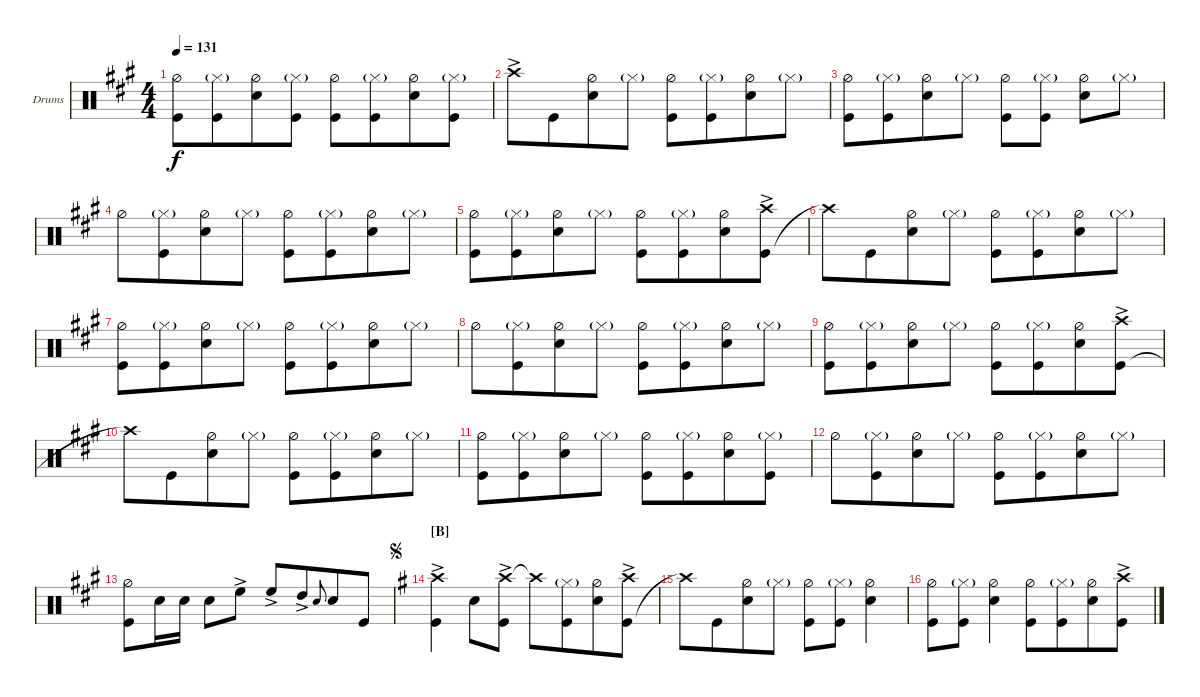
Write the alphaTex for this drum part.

\defaultSystemsLayout 4
\bracketExtendMode groupsimilarinstruments
\firstSystemTrackNameOrientation horizontal
\otherSystemsTrackNameOrientation horizontal
\track ("Drumkit" "Drums") {instrument percussion}
\staff {score}
\articulation defaults
\ts (4 4)
\tempo 131
\clef neutral
\ks a
("Kick (hit)" "Hi-Hat (half)").8{dy f} ("Kick (hit)" "Hi-Hat (closed)"{g}).8{beam merge} ("Snare (hit) 2" "Hi-Hat (half)").8 ("Kick (hit)" "Hi-Hat (closed)"{g}).8 ("Kick (hit)" "Hi-Hat (half)").8 ("Kick (hit)" "Hi-Hat (closed)"{g}).8{beam merge} ("Snare (hit) 2" "Hi-Hat (half)").8 ("Kick (hit)" "Hi-Hat (closed)"{g}).8 |
"Crash high (hit)"{ac}.8 "Kick (hit)".8{beam merge} ("Snare (hit) 2" "Hi-Hat (half)").8 "Hi-Hat (closed)"{g}.8 ("Kick (hit)" "Hi-Hat (half)").8 ("Kick (hit)" "Hi-Hat (closed)"{g}).8{beam merge} ("Snare (hit) 2" "Hi-Hat (half)").8 "Hi-Hat (closed)"{g}.8 |
("Kick (hit)" "Hi-Hat (half)").8 ("Kick (hit)" "Hi-Hat (closed)"{g}).8{beam merge} ("Snare (hit) 2" "Hi-Hat (half)").8 "Hi-Hat (closed)"{g}.8 ("Kick (hit)" "Hi-Hat (half)").8 ("Kick (hit)" "Hi-Hat (closed)"{g}).8 ("Snare (hit) 2" "Hi-Hat (half)").8 "Hi-Hat (closed)"{g}.8 |
"Hi-Hat (half)".8 ("Kick (hit)" "Hi-Hat (closed)"{g}).8{beam merge} ("Snare (hit) 2" "Hi-Hat (half)").8 "Hi-Hat (closed)"{g}.8 ("Kick (hit)" "Hi-Hat (half)").8 ("Kick (hit)" "Hi-Hat (closed)"{g}).8{beam merge} ("Snare (hit) 2" "Hi-Hat (half)").8 "Hi-Hat (closed)"{g}.8 |
("Kick (hit)" "Hi-Hat (half)").8 ("Kick (hit)" "Hi-Hat (closed)"{g}).8{beam merge} ("Snare (hit) 2" "Hi-Hat (half)").8 "Hi-Hat (closed)"{g}.8 ("Kick (hit)" "Hi-Hat (half)").8 ("Kick (hit)" "Hi-Hat (closed)"{g}).8{beam merge} ("Snare (hit) 2" "Hi-Hat (half)").8 ("Kick (hit)" "Crash high (hit)"{ac}).8 |
"Crash high (hit)"{t}.8 "Kick (hit)".8{beam merge} ("Snare (hit) 2" "Hi-Hat (half)").8 "Hi-Hat (closed)"{g}.8 ("Kick (hit)" "Hi-Hat (half)").8 ("Kick (hit)" "Hi-Hat (closed)"{g}).8{beam merge} ("Snare (hit) 2" "Hi-Hat (half)").8 "Hi-Hat (closed)"{g}.8 |
("Kick (hit)" "Hi-Hat (half)").8 ("Kick (hit)" "Hi-Hat (closed)"{g}).8{beam merge} ("Snare (hit) 2" "Hi-Hat (half)").8 "Hi-Hat (closed)"{g}.8 ("Kick (hit)" "Hi-Hat (half)").8 ("Kick (hit)" "Hi-Hat (closed)"{g}).8{beam merge} ("Snare (hit) 2" "Hi-Hat (half)").8 "Hi-Hat (closed)"{g}.8 |
"Hi-Hat (half)".8 ("Kick (hit)" "Hi-Hat (closed)"{g}).8{beam merge} ("Snare (hit) 2" "Hi-Hat (half)").8 "Hi-Hat (closed)"{g}.8 ("Kick (hit)" "Hi-Hat (half)").8 ("Kick (hit)" "Hi-Hat (closed)"{g}).8{beam merge} ("Snare (hit) 2" "Hi-Hat (half)").8 "Hi-Hat (closed)"{g}.8 |
("Kick (hit)" "Hi-Hat (half)").8 ("Kick (hit)" "Hi-Hat (closed)"{g}).8{beam merge} ("Snare (hit) 2" "Hi-Hat (half)").8 "Hi-Hat (closed)"{g}.8 ("Kick (hit)" "Hi-Hat (half)").8 ("Kick (hit)" "Hi-Hat (closed)"{g}).8{beam merge} ("Snare (hit) 2" "Hi-Hat (half)").8 ("Kick (hit)" "Crash high (hit)"{ac}).8 |
"Crash high (hit)"{t}.8 "Kick (hit)".8{beam merge} ("Snare (hit) 2" "Hi-Hat (half)").8 "Hi-Hat (closed)"{g}.8 ("Kick (hit)" "Hi-Hat (half)").8 ("Kick (hit)" "Hi-Hat (closed)"{g}).8{beam merge} ("Snare (hit) 2" "Hi-Hat (half)").8 "Hi-Hat (closed)"{g}.8 |
("Kick (hit)" "Hi-Hat (half)").8 ("Kick (hit)" "Hi-Hat (closed)"{g}).8{beam merge} ("Snare (hit) 2" "Hi-Hat (half)").8 "Hi-Hat (closed)"{g}.8 ("Kick (hit)" "Hi-Hat (half)").8 ("Kick (hit)" "Hi-Hat (closed)"{g}).8{beam merge} ("Snare (hit) 2" "Hi-Hat (half)").8 ("Hi-Hat (closed)"{g} "Kick (hit)").8 |
"Hi-Hat (half)".8 ("Kick (hit)" "Hi-Hat (closed)"{g}).8{beam merge} ("Snare (hit) 2" "Hi-Hat (half)").8 "Hi-Hat (closed)"{g}.8 ("Kick (hit)" "Hi-Hat (half)").8 ("Kick (hit)" "Hi-Hat (closed)"{g}).8{beam merge} ("Snare (hit) 2" "Hi-Hat (half)").8 "Hi-Hat (closed)"{g}.8 |
("Kick (hit)" "Hi-Hat (half)").8 "Snare (hit) 2".16 "Snare (hit) 2".16 "Snare (hit) 2".8 "High Floor Tom (hit)"{ac}.8 "High Floor Tom (hit)"{ac}.8 "High Tom (hit)"{ac}.8{beam merge} "Snare (hit) 2".8{gr onbeat beam merge} "Snare (hit) 2".8 "Kick (hit)".8 |
\section ("" "[B]")
\jump segno
\ks g
("Kick (hit)" "Crash high (hit)"{ac}).4 "Snare (hit) 2".8 ("Crash high (hit)"{ac} "Kick (hit)").8 "Crash high (hit)"{t}.8 ("Hi-Hat (closed)"{g} "Kick (hit)").8{beam merge} ("Hi-Hat (half)" "Snare (hit) 2").8 ("Kick (hit)" "Crash high (hit)"{ac}).8 |
"Crash high (hit)"{t}.8 "Kick (hit)".8{beam merge} ("Hi-Hat (half)" "Snare (hit) 2").8 "Hi-Hat (closed)"{g}.8 ("Hi-Hat (half)" "Kick (hit)").8 ("Hi-Hat (closed)"{g} "Kick (hit)").8{beam merge} ("Hi-Hat (half)" "Snare (hit) 2").4 |
("Hi-Hat (half)" "Kick (hit)").8 ("Hi-Hat (closed)"{g} "Kick (hit)").8{beam merge} ("Hi-Hat (half)" "Snare (hit) 2").4 ("Kick (hit)" "Hi-Hat (half)").8 ("Kick (hit)" "Hi-Hat (closed)"{g}).8{beam merge} ("Snare (hit) 2" "Hi-Hat (half)").8 ("Kick (hit)" "Crash high (hit)"{ac}).8
